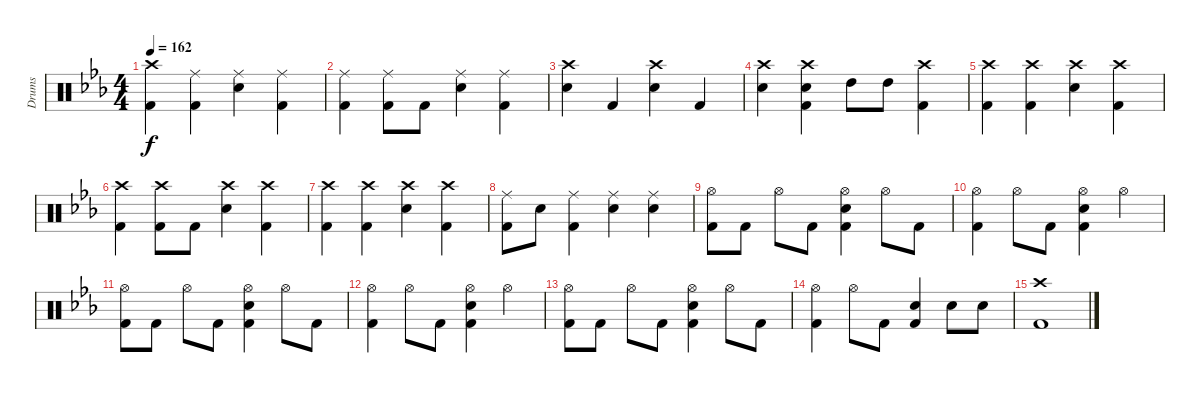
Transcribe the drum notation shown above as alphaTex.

\track ("Drums" "Drums") {instrument percussion}
\staff {score}
\articulation defaults
\ts (4 4)
\tempo 162
\clef neutral
\ks eb
("Crash high (hit)" "Kick (hit) 2").4{dy f} ("Ride (middle)" "Kick (hit) 2").4 ("Ride (middle)" "Electric Snare (hit)").4 ("Ride (middle)" "Kick (hit) 2").4 |
("Ride (middle)" "Kick (hit) 2").4 ("Ride (middle)" "Kick (hit) 2").8 "Kick (hit) 2".8 ("Ride (middle)" "Electric Snare (hit)").4 ("Ride (middle)" "Kick (hit) 2").4 |
("Crash high (hit)" "Electric Snare (hit)").4 "Kick (hit) 2".4 ("Crash high (hit)" "Electric Snare (hit)").4 "Kick (hit) 2".4 |
("Crash high (hit)" "Electric Snare (hit)").4 ("Crash high (hit)" "Electric Snare (hit)" "Kick (hit) 2").4 "High Tom (hit)".8 "High Tom (hit)".8 ("Crash high (hit)" "Kick (hit) 2").4 |
("Crash high (hit)" "Kick (hit) 2").4 ("Crash high (hit)" "Kick (hit) 2").4 ("Crash high (hit)" "Electric Snare (hit)").4 ("Crash high (hit)" "Kick (hit) 2").4 |
("Crash high (hit)" "Kick (hit) 2").4 ("Crash high (hit)" "Kick (hit) 2").8 "Kick (hit) 2".8 ("Crash high (hit)" "Electric Snare (hit)").4 ("Crash high (hit)" "Kick (hit) 2").4 |
("Crash high (hit)" "Kick (hit) 2").4 ("Crash high (hit)" "Kick (hit) 2").4 ("Crash high (hit)" "Electric Snare (hit)").4 ("Crash high (hit)" "Kick (hit) 2").4 |
("Ride (middle)" "Kick (hit) 2").8 "Electric Snare (hit)".8 ("Ride (middle)" "Kick (hit) 2").4 ("Ride (middle)" "Electric Snare (hit)").4 ("Ride (middle)" "Electric Snare (hit)").4 |
("Hi-Hat (open)" "Kick (hit) 2").8 "Kick (hit) 2".8 "Hi-Hat (open)".8 "Kick (hit) 2".8 ("Hi-Hat (open)" "Electric Snare (hit)" "Kick (hit) 2").4 "Hi-Hat (open)".8 "Kick (hit) 2".8 |
("Hi-Hat (open)" "Kick (hit) 2").4 "Hi-Hat (open)".8 "Kick (hit) 2".8 ("Hi-Hat (open)" "Electric Snare (hit)" "Kick (hit) 2").4 "Hi-Hat (open)".4 |
("Hi-Hat (open)" "Kick (hit) 2").8 "Kick (hit) 2".8 "Hi-Hat (open)".8 "Kick (hit) 2".8 ("Hi-Hat (open)" "Electric Snare (hit)" "Kick (hit) 2").4 "Hi-Hat (open)".8 "Kick (hit) 2".8 |
("Hi-Hat (open)" "Kick (hit) 2").4 "Hi-Hat (open)".8 "Kick (hit) 2".8 ("Hi-Hat (open)" "Electric Snare (hit)" "Kick (hit) 2").4 "Hi-Hat (open)".4 |
("Hi-Hat (open)" "Kick (hit) 2").8 "Kick (hit) 2".8 "Hi-Hat (open)".8 "Kick (hit) 2".8 ("Hi-Hat (open)" "Electric Snare (hit)" "Kick (hit) 2").4 "Hi-Hat (open)".8 "Kick (hit) 2".8 |
("Hi-Hat (open)" "Kick (hit) 2").4 "Hi-Hat (open)".8 "Kick (hit) 2".8 ("Electric Snare (hit)" "Kick (hit) 2").4 "Electric Snare (hit)".8 "Electric Snare (hit)".8 |
("Crash high (hit)" "Kick (hit) 2").1
